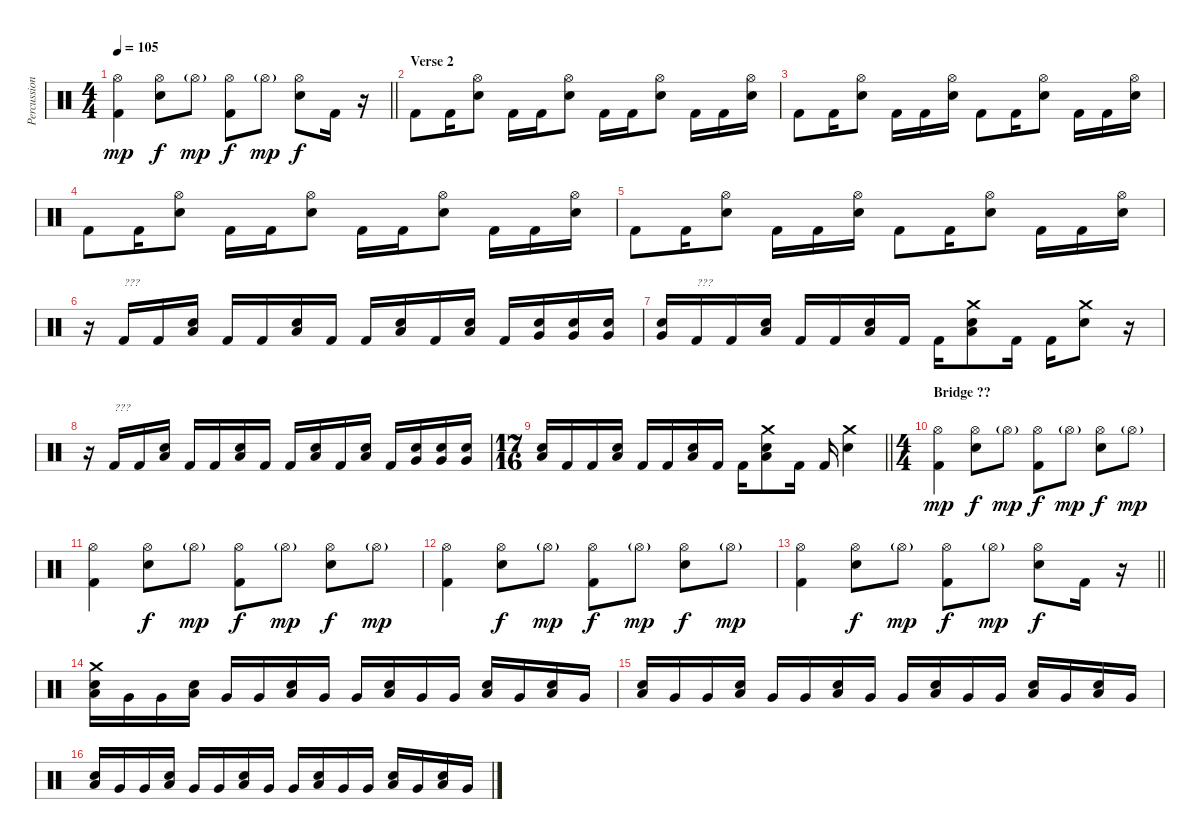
\track ("Percussion" "Percussion") {instrument percussion}
\staff {score}
\articulation defaults
\ts (4 4)
\tempo 105
\clef neutral
\barLineRight lightlight
\ks c
("Hi-Hat (open)" "Kick (hit) 2").4{dy mp} ("Hi-Hat (open)" "Snare (hit) 2").8{dy f} "Hi-Hat (open)"{g}.8{dy mp} ("Hi-Hat (open)" "Kick (hit) 2").8{dy f} "Hi-Hat (open)"{g}.8{dy mp} ("Hi-Hat (open)" "Snare (hit) 2").8{dy f} "Kick (hit) 2".16 r.16 |
\section ("" "Verse 2")
"Kick (hit) 2".8 "Kick (hit) 2".16 ("Hi-Hat (open)" "Snare (hit) 2").8 "Kick (hit) 2".16 "Kick (hit) 2".16 ("Hi-Hat (open)" "Snare (hit) 2").8 "Kick (hit) 2".16 "Kick (hit) 2".16 ("Hi-Hat (open)" "Snare (hit) 2").8 "Kick (hit) 2".16 "Kick (hit) 2".16 ("Hi-Hat (open)" "Snare (hit) 2").16 |
"Kick (hit) 2".8 "Kick (hit) 2".16 ("Hi-Hat (open)" "Snare (hit) 2").8 "Kick (hit) 2".16 "Kick (hit) 2".16 ("Hi-Hat (open)" "Snare (hit) 2").16 "Kick (hit) 2".8 "Kick (hit) 2".16 ("Hi-Hat (open)" "Snare (hit) 2").8 "Kick (hit) 2".16 "Kick (hit) 2".16 ("Hi-Hat (open)" "Snare (hit) 2").16 |
"Kick (hit) 2".8 "Kick (hit) 2".16 ("Hi-Hat (open)" "Snare (hit) 2").8 "Kick (hit) 2".16 "Kick (hit) 2".16 ("Hi-Hat (open)" "Snare (hit) 2").8 "Kick (hit) 2".16 "Kick (hit) 2".16 ("Hi-Hat (open)" "Snare (hit) 2").8 "Kick (hit) 2".16 "Kick (hit) 2".16 ("Hi-Hat (open)" "Snare (hit) 2").16 |
"Kick (hit) 2".8 "Kick (hit) 2".16 ("Hi-Hat (open)" "Snare (hit) 2").8 "Kick (hit) 2".16 "Kick (hit) 2".16 ("Hi-Hat (open)" "Snare (hit) 2").16 "Kick (hit) 2".8 "Kick (hit) 2".16 ("Hi-Hat (open)" "Snare (hit) 2").8 "Kick (hit) 2".16 "Kick (hit) 2".16 ("Hi-Hat (open)" "Snare (hit) 2").16 |
r.16 "Kick (hit) 2".16{txt "???"} "Kick (hit) 2".16 ("Low Tom (hit)" "Snare (hit) 2").16 "Kick (hit) 2".16 "Kick (hit) 2".16 ("Low Tom (hit)" "Snare (hit) 2").16 "Kick (hit) 2".16 "Kick (hit) 2".16 ("Low Tom (hit)" "Snare (hit) 2").16 "Kick (hit) 2".16 ("Low Tom (hit)" "Snare (hit) 2").16 "Kick (hit) 2".16 ("Very Low Tom (hit)" "Snare (hit) 2").16 ("Very Low Tom (hit)" "Snare (hit) 2").16 ("Very Low Tom (hit)" "Snare (hit) 2").16 |
("Very Low Tom (hit)" "Snare (hit) 2").16 "Kick (hit) 2".16{txt "???"} "Kick (hit) 2".16 ("Low Tom (hit)" "Snare (hit) 2").16 "Kick (hit) 2".16 "Kick (hit) 2".16 ("Low Tom (hit)" "Snare (hit) 2").16 "Kick (hit) 2".16 "Kick (hit) 2".16 ("Crash medium (hit)" "Low Tom (hit)" "Snare (hit) 2").8 "Kick (hit) 2".16 "Kick (hit) 2".16 ("Crash medium (hit)" "Snare (hit) 2").8 r.16 |
r.16 "Kick (hit) 2".16{txt "???"} "Kick (hit) 2".16 ("Low Tom (hit)" "Snare (hit) 2").16 "Kick (hit) 2".16 "Kick (hit) 2".16 ("Low Tom (hit)" "Snare (hit) 2").16 "Kick (hit) 2".16 "Kick (hit) 2".16 ("Low Tom (hit)" "Snare (hit) 2").16 "Kick (hit) 2".16 ("Low Tom (hit)" "Snare (hit) 2").16 "Kick (hit) 2".16 ("Very Low Tom (hit)" "Snare (hit) 2").16 ("Very Low Tom (hit)" "Snare (hit) 2").16 ("Very Low Tom (hit)" "Snare (hit) 2").16 |
\ts (17 16)
\barLineRight lightlight
("Low Tom (hit)" "Snare (hit) 2").16 "Kick (hit) 2".16 "Kick (hit) 2".16 ("Low Tom (hit)" "Snare (hit) 2").16 "Kick (hit) 2".16 "Kick (hit) 2".16 ("Low Tom (hit)" "Snare (hit) 2").16 "Kick (hit) 2".16 "Kick (hit) 2".16 ("Crash medium (hit)" "Low Tom (hit)" "Snare (hit) 2").8 "Kick (hit) 2".16 "Kick (hit) 2".16 ("Crash medium (hit)" "Snare (hit) 2").4 |
\ts (4 4)
\section ("" "Bridge ??")
("Hi-Hat (open)" "Kick (hit) 2").4{dy mp} ("Hi-Hat (open)" "Snare (hit) 2").8{dy f} "Hi-Hat (open)"{g}.8{dy mp} ("Hi-Hat (open)" "Kick (hit) 2").8{dy f} "Hi-Hat (open)"{g}.8{dy mp} ("Hi-Hat (open)" "Snare (hit) 2").8{dy f} "Hi-Hat (open)"{g}.8{dy mp} |
("Hi-Hat (open)" "Kick (hit) 2").4 ("Hi-Hat (open)" "Snare (hit) 2").8{dy f} "Hi-Hat (open)"{g}.8{dy mp} ("Hi-Hat (open)" "Kick (hit) 2").8{dy f} "Hi-Hat (open)"{g}.8{dy mp} ("Hi-Hat (open)" "Snare (hit) 2").8{dy f} "Hi-Hat (open)"{g}.8{dy mp} |
("Hi-Hat (open)" "Kick (hit) 2").4 ("Hi-Hat (open)" "Snare (hit) 2").8{dy f} "Hi-Hat (open)"{g}.8{dy mp} ("Hi-Hat (open)" "Kick (hit) 2").8{dy f} "Hi-Hat (open)"{g}.8{dy mp} ("Hi-Hat (open)" "Snare (hit) 2").8{dy f} "Hi-Hat (open)"{g}.8{dy mp} |
\barLineRight lightlight
("Hi-Hat (open)" "Kick (hit) 2").4 ("Hi-Hat (open)" "Snare (hit) 2").8{dy f} "Hi-Hat (open)"{g}.8{dy mp} ("Hi-Hat (open)" "Kick (hit) 2").8{dy f} "Hi-Hat (open)"{g}.8{dy mp} ("Hi-Hat (open)" "Snare (hit) 2").8{dy f} "Kick (hit) 2".16 r.16 |
("Crash medium (hit)" "Low Tom (hit)" "Snare (hit) 2").16 "Very Low Tom (hit)".16 "Very Low Tom (hit)".16 ("Low Tom (hit)" "Snare (hit) 2").16 "Very Low Tom (hit)".16 "Very Low Tom (hit)".16 ("Low Tom (hit)" "Snare (hit) 2").16 "Very Low Tom (hit)".16 "Very Low Tom (hit)".16 ("Low Tom (hit)" "Snare (hit) 2").16 "Very Low Tom (hit)".16 "Very Low Tom (hit)".16 ("Low Tom (hit)" "Snare (hit) 2").16 "Very Low Tom (hit)".16 ("Low Tom (hit)" "Snare (hit) 2").16 "Very Low Tom (hit)".16 |
("Low Tom (hit)" "Snare (hit) 2").16 "Very Low Tom (hit)".16 "Very Low Tom (hit)".16 ("Low Tom (hit)" "Snare (hit) 2").16 "Very Low Tom (hit)".16 "Very Low Tom (hit)".16 ("Low Tom (hit)" "Snare (hit) 2").16 "Very Low Tom (hit)".16 "Very Low Tom (hit)".16 ("Low Tom (hit)" "Snare (hit) 2").16 "Very Low Tom (hit)".16 "Very Low Tom (hit)".16 ("Low Tom (hit)" "Snare (hit) 2").16 "Very Low Tom (hit)".16 ("Low Tom (hit)" "Snare (hit) 2").16 "Very Low Tom (hit)".16 |
("Low Tom (hit)" "Snare (hit) 2").16 "Very Low Tom (hit)".16 "Very Low Tom (hit)".16 ("Low Tom (hit)" "Snare (hit) 2").16 "Very Low Tom (hit)".16 "Very Low Tom (hit)".16 ("Low Tom (hit)" "Snare (hit) 2").16 "Very Low Tom (hit)".16 "Very Low Tom (hit)".16 ("Low Tom (hit)" "Snare (hit) 2").16 "Very Low Tom (hit)".16 "Very Low Tom (hit)".16 ("Low Tom (hit)" "Snare (hit) 2").16 "Very Low Tom (hit)".16 ("Low Tom (hit)" "Snare (hit) 2").16 "Very Low Tom (hit)".16
